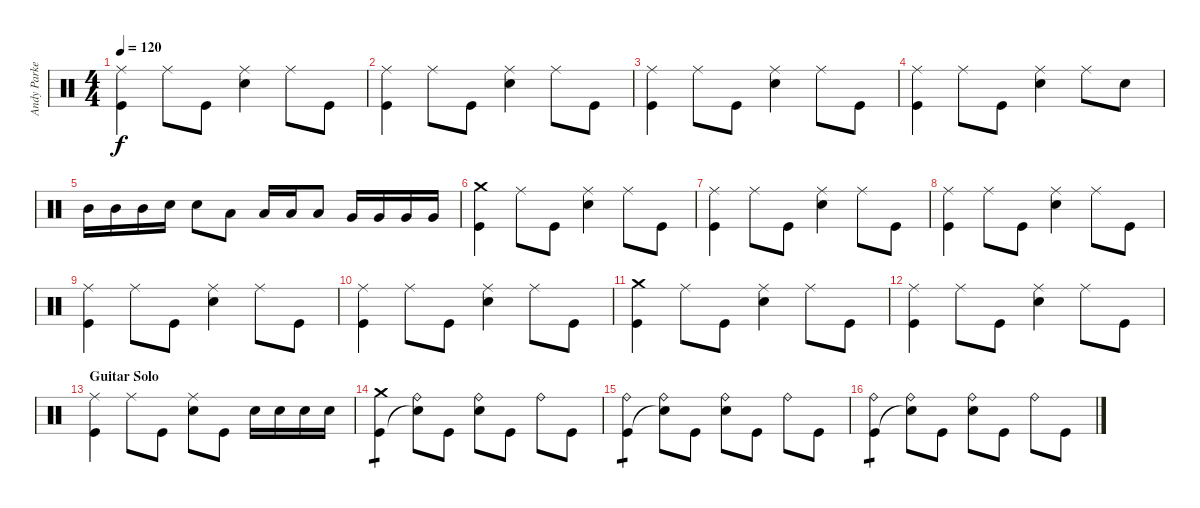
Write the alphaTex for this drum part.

\track ("Andy Parker" "Andy Parke") {instrument percussion}
\staff {score}
\articulation defaults
\ts (4 4)
\tempo 120
\clef neutral
\ks c
("Ride (middle)" "Kick (hit)").4{dy f} "Ride (middle)".8 "Kick (hit)".8 ("Ride (middle)" "Snare (hit) 2").4 "Ride (middle)".8 "Kick (hit)".8 |
("Ride (middle)" "Kick (hit)").4 "Ride (middle)".8 "Kick (hit)".8 ("Ride (middle)" "Snare (hit) 2").4 "Ride (middle)".8 "Kick (hit)".8 |
("Ride (middle)" "Kick (hit)").4 "Ride (middle)".8 "Kick (hit)".8 ("Ride (middle)" "Snare (hit) 2").4 "Ride (middle)".8 "Kick (hit)".8 |
("Ride (middle)" "Kick (hit)").4 "Ride (middle)".8 "Kick (hit)".8 ("Ride (middle)" "Snare (hit) 2").4 "Ride (middle)".8 "Snare (hit) 2".8 |
"Mid Tom (hit)".16 "Mid Tom (hit)".16 "Mid Tom (hit)".16 "Snare (hit) 2".16 "Snare (hit) 2".8 "Low Tom (hit)".8 "Low Tom (hit)".16 "Low Tom (hit)".16 "Low Tom (hit)".8 "Very Low Tom (hit)".16 "Very Low Tom (hit)".16 "Very Low Tom (hit)".16 "Very Low Tom (hit)".16 |
("Crash medium (hit)" "Kick (hit)").4 "Ride (middle)".8 "Kick (hit)".8 ("Ride (middle)" "Snare (hit) 2").4 "Ride (middle)".8 "Kick (hit)".8 |
("Ride (middle)" "Kick (hit)").4 "Ride (middle)".8 "Kick (hit)".8 ("Ride (middle)" "Snare (hit) 2").4 "Ride (middle)".8 "Kick (hit)".8 |
("Ride (middle)" "Kick (hit)").4 "Ride (middle)".8 "Kick (hit)".8 ("Ride (middle)" "Snare (hit) 2").4 "Ride (middle)".8 "Kick (hit)".8 |
("Ride (middle)" "Kick (hit)").4 "Ride (middle)".8 "Kick (hit)".8 ("Ride (middle)" "Snare (hit) 2").4 "Ride (middle)".8 "Kick (hit)".8 |
("Ride (middle)" "Kick (hit)").4 "Ride (middle)".8 "Kick (hit)".8 ("Ride (middle)" "Snare (hit) 2").4 "Ride (middle)".8 "Kick (hit)".8 |
("Crash medium (hit)" "Kick (hit)").4 "Ride (middle)".8 "Kick (hit)".8 ("Ride (middle)" "Snare (hit) 2").4 "Ride (middle)".8 "Kick (hit)".8 |
("Ride (middle)" "Kick (hit)").4 "Ride (middle)".8 "Kick (hit)".8 ("Ride (middle)" "Snare (hit) 2").4 "Ride (middle)".8 "Kick (hit)".8 |
\section ("" "Guitar Solo")
("Ride (middle)" "Kick (hit)").4 "Ride (middle)".8 "Kick (hit)".8 ("Ride (middle)" "Snare (hit) 2").8 "Kick (hit)".8 "Snare (hit) 2".16 "Snare (hit) 2".16 "Snare (hit) 2".16 "Snare (hit) 2".16 |
("Crash medium (hit)" "Kick (hit)").4{tp 1} ("Ride (bell)" "Snare (hit)"{t}).8 "Kick (hit)".8 ("Ride (bell)" "Snare (hit) 2").8 "Kick (hit)".8 "Ride (bell)".8 "Kick (hit)".8 |
("Ride (bell)" "Kick (hit)").4{tp 1} ("Ride (bell)" "Snare (hit)"{t}).8 "Kick (hit)".8 ("Ride (bell)" "Snare (hit) 2").8 "Kick (hit)".8 "Ride (bell)".8 "Kick (hit)".8 |
("Ride (bell)" "Kick (hit)").4{tp 1} ("Ride (bell)" "Snare (hit)"{t}).8 "Kick (hit)".8 ("Ride (bell)" "Snare (hit) 2").8 "Kick (hit)".8 "Ride (bell)".8 "Kick (hit)".8
